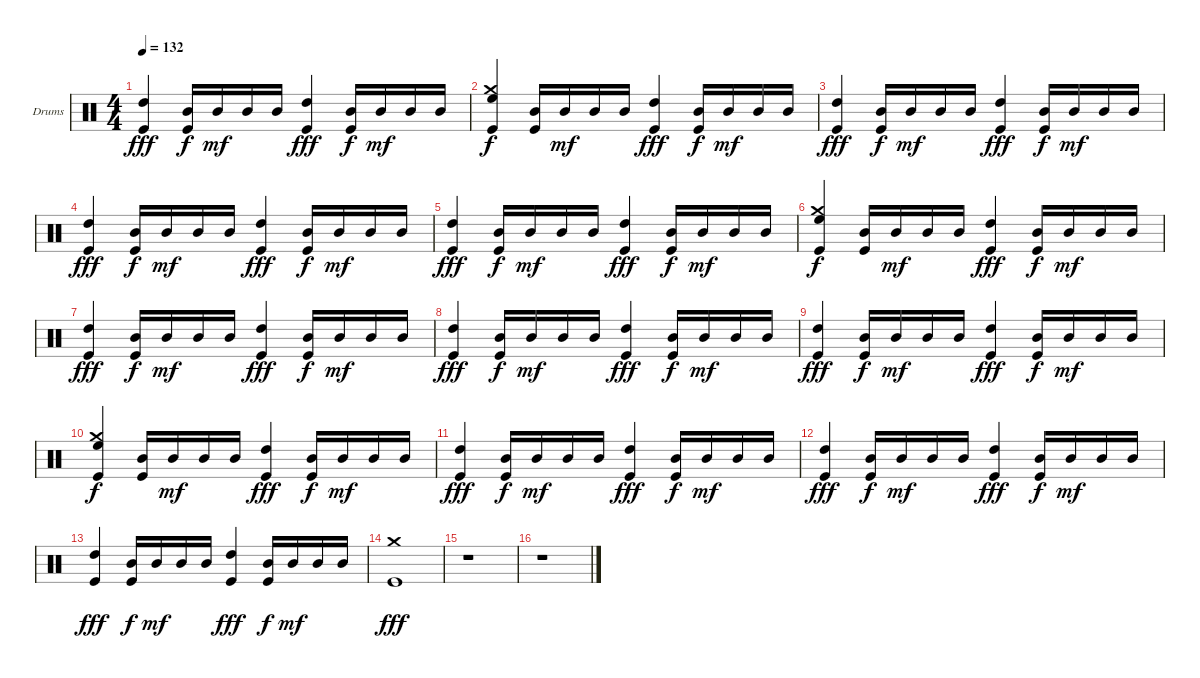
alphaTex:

\bracketExtendMode groupsimilarinstruments
\firstSystemTrackNameOrientation horizontal
\otherSystemsTrackNameOrientation horizontal
\track ("Larry" "Drums") {instrument percussion}
\staff {score}
\articulation defaults
\ts (4 4)
\tempo 132
\clef neutral
\ks c
("High Tom (hit)" "Kick (hit)").4{dy fff} ("Mid Tom (hit)" "Kick (hit)").16{dy f} "Mid Tom (hit)".16{dy mf} "Mid Tom (hit)".16 "Mid Tom (hit)".16 ("High Tom (hit)" "Kick (hit)").4{dy fff} ("Mid Tom (hit)" "Kick (hit)").16{dy f} "Mid Tom (hit)".16{dy mf} "Mid Tom (hit)".16 "Mid Tom (hit)".16 |
("Crash medium (hit)" "High Floor Tom (hit)" "Kick (hit)").4{dy f} ("Mid Tom (hit)" "Kick (hit)").16 "Mid Tom (hit)".16{dy mf} "Mid Tom (hit)".16 "Mid Tom (hit)".16 ("High Tom (hit)" "Kick (hit)").4{dy fff} ("Mid Tom (hit)" "Kick (hit)").16{dy f} "Mid Tom (hit)".16{dy mf} "Mid Tom (hit)".16 "Mid Tom (hit)".16 |
("High Tom (hit)" "Kick (hit)").4{dy fff} ("Mid Tom (hit)" "Kick (hit)").16{dy f} "Mid Tom (hit)".16{dy mf} "Mid Tom (hit)".16 "Mid Tom (hit)".16 ("High Tom (hit)" "Kick (hit)").4{dy fff} ("Mid Tom (hit)" "Kick (hit)").16{dy f} "Mid Tom (hit)".16{dy mf} "Mid Tom (hit)".16 "Mid Tom (hit)".16 |
("High Tom (hit)" "Kick (hit)").4{dy fff} ("Mid Tom (hit)" "Kick (hit)").16{dy f} "Mid Tom (hit)".16{dy mf} "Mid Tom (hit)".16 "Mid Tom (hit)".16 ("High Tom (hit)" "Kick (hit)").4{dy fff} ("Mid Tom (hit)" "Kick (hit)").16{dy f} "Mid Tom (hit)".16{dy mf} "Mid Tom (hit)".16 "Mid Tom (hit)".16 |
("High Tom (hit)" "Kick (hit)").4{dy fff} ("Mid Tom (hit)" "Kick (hit)").16{dy f} "Mid Tom (hit)".16{dy mf} "Mid Tom (hit)".16 "Mid Tom (hit)".16 ("High Tom (hit)" "Kick (hit)").4{dy fff} ("Mid Tom (hit)" "Kick (hit)").16{dy f} "Mid Tom (hit)".16{dy mf} "Mid Tom (hit)".16 "Mid Tom (hit)".16 |
("Crash medium (hit)" "High Floor Tom (hit)" "Kick (hit)").4{dy f} ("Mid Tom (hit)" "Kick (hit)").16 "Mid Tom (hit)".16{dy mf} "Mid Tom (hit)".16 "Mid Tom (hit)".16 ("High Tom (hit)" "Kick (hit)").4{dy fff} ("Mid Tom (hit)" "Kick (hit)").16{dy f} "Mid Tom (hit)".16{dy mf} "Mid Tom (hit)".16 "Mid Tom (hit)".16 |
("High Tom (hit)" "Kick (hit)").4{dy fff} ("Mid Tom (hit)" "Kick (hit)").16{dy f} "Mid Tom (hit)".16{dy mf} "Mid Tom (hit)".16 "Mid Tom (hit)".16 ("High Tom (hit)" "Kick (hit)").4{dy fff} ("Mid Tom (hit)" "Kick (hit)").16{dy f} "Mid Tom (hit)".16{dy mf} "Mid Tom (hit)".16 "Mid Tom (hit)".16 |
("High Tom (hit)" "Kick (hit)").4{dy fff} ("Mid Tom (hit)" "Kick (hit)").16{dy f} "Mid Tom (hit)".16{dy mf} "Mid Tom (hit)".16 "Mid Tom (hit)".16 ("High Tom (hit)" "Kick (hit)").4{dy fff} ("Mid Tom (hit)" "Kick (hit)").16{dy f} "Mid Tom (hit)".16{dy mf} "Mid Tom (hit)".16 "Mid Tom (hit)".16 |
("High Tom (hit)" "Kick (hit)").4{dy fff} ("Mid Tom (hit)" "Kick (hit)").16{dy f} "Mid Tom (hit)".16{dy mf} "Mid Tom (hit)".16 "Mid Tom (hit)".16 ("High Tom (hit)" "Kick (hit)").4{dy fff} ("Mid Tom (hit)" "Kick (hit)").16{dy f} "Mid Tom (hit)".16{dy mf} "Mid Tom (hit)".16 "Mid Tom (hit)".16 |
("Crash medium (hit)" "High Floor Tom (hit)" "Kick (hit)").4{dy f} ("Mid Tom (hit)" "Kick (hit)").16 "Mid Tom (hit)".16{dy mf} "Mid Tom (hit)".16 "Mid Tom (hit)".16 ("High Tom (hit)" "Kick (hit)").4{dy fff} ("Mid Tom (hit)" "Kick (hit)").16{dy f} "Mid Tom (hit)".16{dy mf} "Mid Tom (hit)".16 "Mid Tom (hit)".16 |
("High Tom (hit)" "Kick (hit)").4{dy fff} ("Mid Tom (hit)" "Kick (hit)").16{dy f} "Mid Tom (hit)".16{dy mf} "Mid Tom (hit)".16 "Mid Tom (hit)".16 ("High Tom (hit)" "Kick (hit)").4{dy fff} ("Mid Tom (hit)" "Kick (hit)").16{dy f} "Mid Tom (hit)".16{dy mf} "Mid Tom (hit)".16 "Mid Tom (hit)".16 |
("High Tom (hit)" "Kick (hit)").4{dy fff} ("Mid Tom (hit)" "Kick (hit)").16{dy f} "Mid Tom (hit)".16{dy mf} "Mid Tom (hit)".16 "Mid Tom (hit)".16 ("High Tom (hit)" "Kick (hit)").4{dy fff} ("Mid Tom (hit)" "Kick (hit)").16{dy f} "Mid Tom (hit)".16{dy mf} "Mid Tom (hit)".16 "Mid Tom (hit)".16 |
("High Tom (hit)" "Kick (hit)").4{dy fff} ("Mid Tom (hit)" "Kick (hit)").16{dy f} "Mid Tom (hit)".16{dy mf} "Mid Tom (hit)".16 "Mid Tom (hit)".16 ("High Tom (hit)" "Kick (hit)").4{dy fff} ("Mid Tom (hit)" "Kick (hit)").16{dy f} "Mid Tom (hit)".16{dy mf} "Mid Tom (hit)".16 "Mid Tom (hit)".16 |
("Crash medium (hit)" "Kick (hit)").1{dy fff} |
r.1 |
r.1
